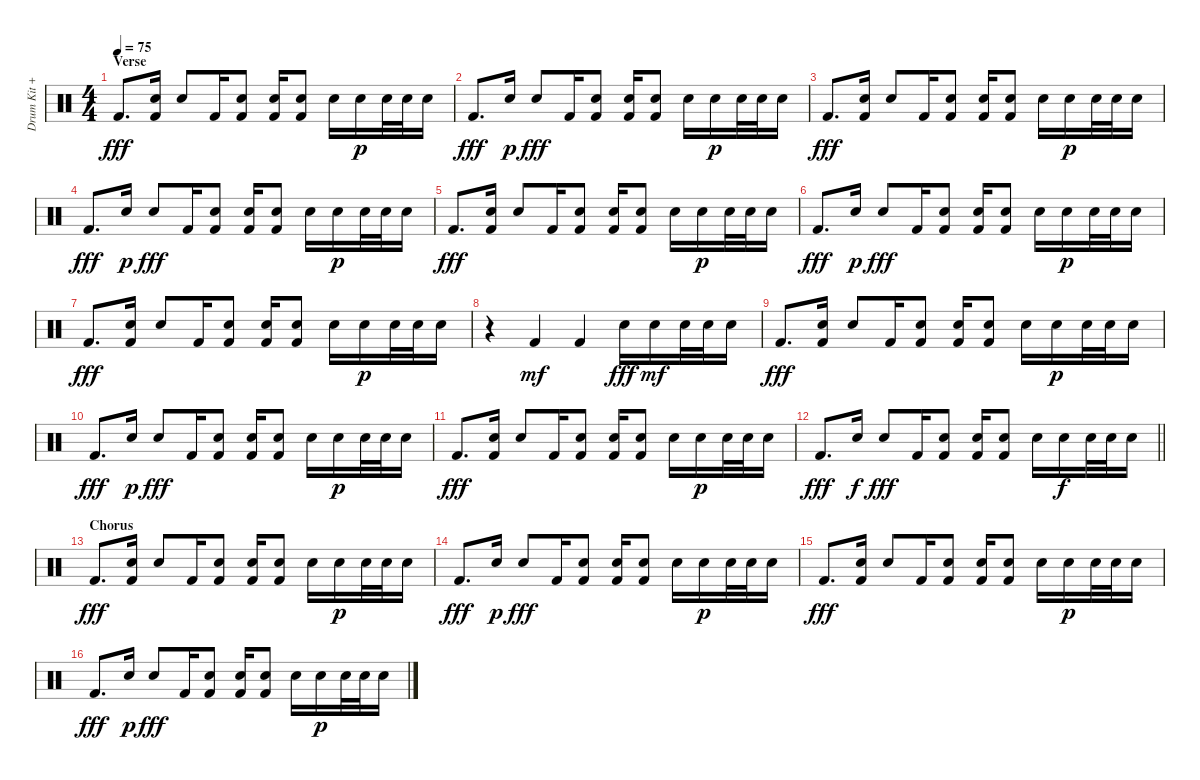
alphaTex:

\track ("Drum Kit + Claps" "Drum Kit +") {instrument percussion}
\staff {score}
\articulation defaults
\ts (4 4)
\section ("" "Verse")
\tempo 75
\clef neutral
\ks c "Kick (hit) 2".8{d dy fff}
("Snare (hit) 2" "Kick (hit) 2").16 "Hand Clap (hit)".8 "Kick (hit) 2".16 ("Snare (hit) 2" "Kick (hit) 2").8 ("Snare (hit) 2" "Kick (hit) 2").16 ("Snare (hit) 2" "Kick (hit) 2").8 "Hand Clap (hit)".16 "Snare (hit) 2".16{dy p} "Snare (hit) 2".32 "Snare (hit) 2".32 "Snare (hit) 2".16 |
"Kick (hit) 2".8{d dy fff} "Snare (hit) 2".16{dy p} "Hand Clap (hit)".8{dy fff} "Kick (hit) 2".16 ("Snare (hit) 2" "Kick (hit) 2").8 ("Snare (hit) 2" "Kick (hit) 2").16 ("Snare (hit) 2" "Kick (hit) 2").8 "Hand Clap (hit)".16 "Snare (hit) 2".16{dy p} "Snare (hit) 2".32 "Snare (hit) 2".32 "Snare (hit) 2".16 |
"Kick (hit) 2".8{d dy fff} ("Snare (hit) 2" "Kick (hit) 2").16 "Hand Clap (hit)".8 "Kick (hit) 2".16 ("Snare (hit) 2" "Kick (hit) 2").8 ("Snare (hit) 2" "Kick (hit) 2").16 ("Snare (hit) 2" "Kick (hit) 2").8 "Hand Clap (hit)".16 "Snare (hit) 2".16{dy p} "Snare (hit) 2".32 "Snare (hit) 2".32 "Snare (hit) 2".16 |
"Kick (hit) 2".8{d dy fff} "Snare (hit) 2".16{dy p} "Hand Clap (hit)".8{dy fff} "Kick (hit) 2".16 ("Snare (hit) 2" "Kick (hit) 2").8 ("Snare (hit) 2" "Kick (hit) 2").16 ("Snare (hit) 2" "Kick (hit) 2").8 "Hand Clap (hit)".16 "Snare (hit) 2".16{dy p} "Snare (hit) 2".32 "Snare (hit) 2".32 "Snare (hit) 2".16 |
"Kick (hit) 2".8{d dy fff} ("Snare (hit) 2" "Kick (hit) 2").16 "Hand Clap (hit)".8 "Kick (hit) 2".16 ("Snare (hit) 2" "Kick (hit) 2").8 ("Snare (hit) 2" "Kick (hit) 2").16 ("Snare (hit) 2" "Kick (hit) 2").8 "Hand Clap (hit)".16 "Snare (hit) 2".16{dy p} "Snare (hit) 2".32 "Snare (hit) 2".32 "Snare (hit) 2".16 |
"Kick (hit) 2".8{d dy fff} "Snare (hit) 2".16{dy p} "Hand Clap (hit)".8{dy fff} "Kick (hit) 2".16 ("Snare (hit) 2" "Kick (hit) 2").8 ("Snare (hit) 2" "Kick (hit) 2").16 ("Snare (hit) 2" "Kick (hit) 2").8 "Hand Clap (hit)".16 "Snare (hit) 2".16{dy p} "Snare (hit) 2".32 "Snare (hit) 2".32 "Snare (hit) 2".16 |
"Kick (hit) 2".8{d dy fff} ("Snare (hit) 2" "Kick (hit) 2").16 "Hand Clap (hit)".8 "Kick (hit) 2".16 ("Snare (hit) 2" "Kick (hit) 2").8 ("Snare (hit) 2" "Kick (hit) 2").16 ("Snare (hit) 2" "Kick (hit) 2").8 "Hand Clap (hit)".16 "Snare (hit) 2".16{dy p} "Snare (hit) 2".32 "Snare (hit) 2".32 "Snare (hit) 2".16 |
r.4 "Kick (hit) 2".4{dy mf} "Kick (hit) 2".4 "Hand Clap (hit)".16{dy fff} "Hand Clap (hit)".16{dy mf} "Hand Clap (hit)".32 "Hand Clap (hit)".32 "Hand Clap (hit)".16 |
"Kick (hit) 2".8{d dy fff} ("Snare (hit) 2" "Kick (hit) 2").16 "Hand Clap (hit)".8 "Kick (hit) 2".16 ("Snare (hit) 2" "Kick (hit) 2").8 ("Snare (hit) 2" "Kick (hit) 2").16 ("Snare (hit) 2" "Kick (hit) 2").8 "Hand Clap (hit)".16 "Snare (hit) 2".16{dy p} "Snare (hit) 2".32 "Snare (hit) 2".32 "Snare (hit) 2".16 |
"Kick (hit) 2".8{d dy fff} "Snare (hit) 2".16{dy p} "Hand Clap (hit)".8{dy fff} "Kick (hit) 2".16 ("Snare (hit) 2" "Kick (hit) 2").8 ("Snare (hit) 2" "Kick (hit) 2").16 ("Snare (hit) 2" "Kick (hit) 2").8 "Hand Clap (hit)".16 "Snare (hit) 2".16{dy p} "Snare (hit) 2".32 "Snare (hit) 2".32 "Snare (hit) 2".16 |
"Kick (hit) 2".8{d dy fff} ("Snare (hit) 2" "Kick (hit) 2").16 "Hand Clap (hit)".8 "Kick (hit) 2".16 ("Snare (hit) 2" "Kick (hit) 2").8 ("Snare (hit) 2" "Kick (hit) 2").16 ("Snare (hit) 2" "Kick (hit) 2").8 "Hand Clap (hit)".16 "Snare (hit) 2".16{dy p} "Snare (hit) 2".32 "Snare (hit) 2".32 "Snare (hit) 2".16 |
\barLineRight lightlight "Kick (hit) 2".8{d dy fff} "Snare (hit) 2".16{dy f} "Hand Clap (hit)".8{dy fff} "Kick (hit) 2".16
("Snare (hit) 2" "Kick (hit) 2").8 ("Snare (hit) 2" "Kick (hit) 2").16 ("Snare (hit) 2" "Kick (hit) 2").8 "Hand Clap (hit)".16 "Snare (hit) 2".16{dy f} "Snare (hit) 2".32 "Snare (hit) 2".32 "Snare (hit) 2".16 |
\section ("" "Chorus")
"Kick (hit) 2".8{d dy fff} ("Snare (hit) 2" "Kick (hit) 2").16 "Hand Clap (hit)".8 "Kick (hit) 2".16 ("Snare (hit) 2" "Kick (hit) 2").8 ("Snare (hit) 2" "Kick (hit) 2").16 ("Snare (hit) 2" "Kick (hit) 2").8 "Hand Clap (hit)".16 "Snare (hit) 2".16{dy p} "Snare (hit) 2".32 "Snare (hit) 2".32 "Snare (hit) 2".16 |
"Kick (hit) 2".8{d dy fff} "Snare (hit) 2".16{dy p} "Hand Clap (hit)".8{dy fff} "Kick (hit) 2".16 ("Snare (hit) 2" "Kick (hit) 2").8 ("Snare (hit) 2" "Kick (hit) 2").16 ("Snare (hit) 2" "Kick (hit) 2").8 "Hand Clap (hit)".16 "Snare (hit) 2".16{dy p} "Snare (hit) 2".32 "Snare (hit) 2".32 "Snare (hit) 2".16 |
"Kick (hit) 2".8{d dy fff} ("Snare (hit) 2" "Kick (hit) 2").16 "Hand Clap (hit)".8 "Kick (hit) 2".16 ("Snare (hit) 2" "Kick (hit) 2").8 ("Snare (hit) 2" "Kick (hit) 2").16 ("Snare (hit) 2" "Kick (hit) 2").8 "Hand Clap (hit)".16 "Snare (hit) 2".16{dy p} "Snare (hit) 2".32 "Snare (hit) 2".32 "Snare (hit) 2".16 |
"Kick (hit) 2".8{d dy fff} "Snare (hit) 2".16{dy p} "Hand Clap (hit)".8{dy fff} "Kick (hit) 2".16 ("Snare (hit) 2" "Kick (hit) 2").8 ("Snare (hit) 2" "Kick (hit) 2").16 ("Snare (hit) 2" "Kick (hit) 2").8 "Hand Clap (hit)".16 "Snare (hit) 2".16{dy p} "Snare (hit) 2".32 "Snare (hit) 2".32 "Snare (hit) 2".16
